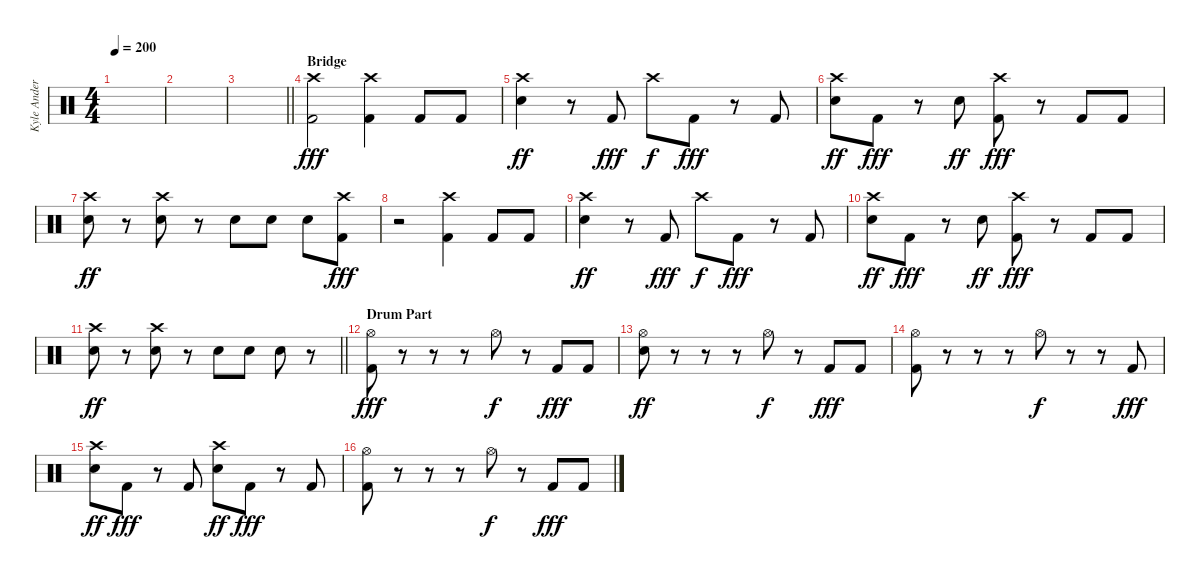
\track ("Kyle Anderson" "Kyle Ander") {instrument percussion}
\staff {score}
\articulation defaults
\ts (4 4)
\tempo 200
\clef neutral
\ks c
|
|
\barLineRight lightlight
|
\section ("" "Bridge")
("Crash high (hit)" "Kick (hit) 2").2{dy fff} ("Crash high (hit)" "Kick (hit) 2").4 "Kick (hit) 2".8 "Kick (hit) 2".8 |
("Crash high (hit)" "Electric Snare (hit)").4{dy ff} r.8 "Kick (hit) 2".8{dy fff} "Crash high (hit)".8{dy f} "Kick (hit) 2".8{dy fff} r.8 "Kick (hit) 2".8 |
("Crash high (hit)" "Electric Snare (hit)").8{dy ff} "Kick (hit) 2".8{dy fff} r.8 "Electric Snare (hit)".8{dy ff} ("Crash high (hit)" "Kick (hit) 2").8{dy fff} r.8 "Kick (hit) 2".8 "Kick (hit) 2".8 |
("Crash high (hit)" "Electric Snare (hit)").8{dy ff} r.8 ("Crash high (hit)" "Electric Snare (hit)").8 r.8 "Electric Snare (hit)".8 "Electric Snare (hit)".8 "Electric Snare (hit)".8 ("Crash high (hit)" "Kick (hit) 2").8{dy fff} |
r.2 ("Crash high (hit)" "Kick (hit) 2").4 "Kick (hit) 2".8 "Kick (hit) 2".8 |
("Crash high (hit)" "Electric Snare (hit)").4{dy ff} r.8 "Kick (hit) 2".8{dy fff} "Crash high (hit)".8{dy f} "Kick (hit) 2".8{dy fff} r.8 "Kick (hit) 2".8 |
("Crash high (hit)" "Electric Snare (hit)").8{dy ff} "Kick (hit) 2".8{dy fff} r.8 "Electric Snare (hit)".8{dy ff} ("Crash high (hit)" "Kick (hit) 2").8{dy fff} r.8 "Kick (hit) 2".8 "Kick (hit) 2".8 |
\barLineRight lightlight
("Crash high (hit)" "Electric Snare (hit)").8{dy ff} r.8 ("Crash high (hit)" "Electric Snare (hit)").8 r.8 "Electric Snare (hit)".8 "Electric Snare (hit)".8 "Electric Snare (hit)".8 r.8 |
\section ("" "Drum Part")
("Hi-Hat (open)" "Kick (hit) 2").8{dy fff} r.8 r.8 r.8 "Hi-Hat (open)".8{dy f} r.8 "Kick (hit) 2".8{dy fff} "Kick (hit) 2".8 |
("Hi-Hat (open)" "Electric Snare (hit)").8{dy ff} r.8 r.8 r.8 "Hi-Hat (open)".8{dy f} r.8 "Kick (hit) 2".8{dy fff} "Kick (hit) 2".8 |
("Hi-Hat (open)" "Kick (hit) 2").8 r.8 r.8 r.8 "Hi-Hat (open)".8{dy f} r.8 r.8 "Kick (hit) 2".8{dy fff} |
("Crash high (hit)" "Electric Snare (hit)").8{dy ff} "Kick (hit) 2".8{dy fff} r.8 "Kick (hit) 2".8 ("Crash high (hit)" "Electric Snare (hit)").8{dy ff} "Kick (hit) 2".8{dy fff} r.8 "Kick (hit) 2".8 |
("Hi-Hat (open)" "Kick (hit) 2").8 r.8 r.8 r.8 "Hi-Hat (open)".8{dy f} r.8 "Kick (hit) 2".8{dy fff} "Kick (hit) 2".8
